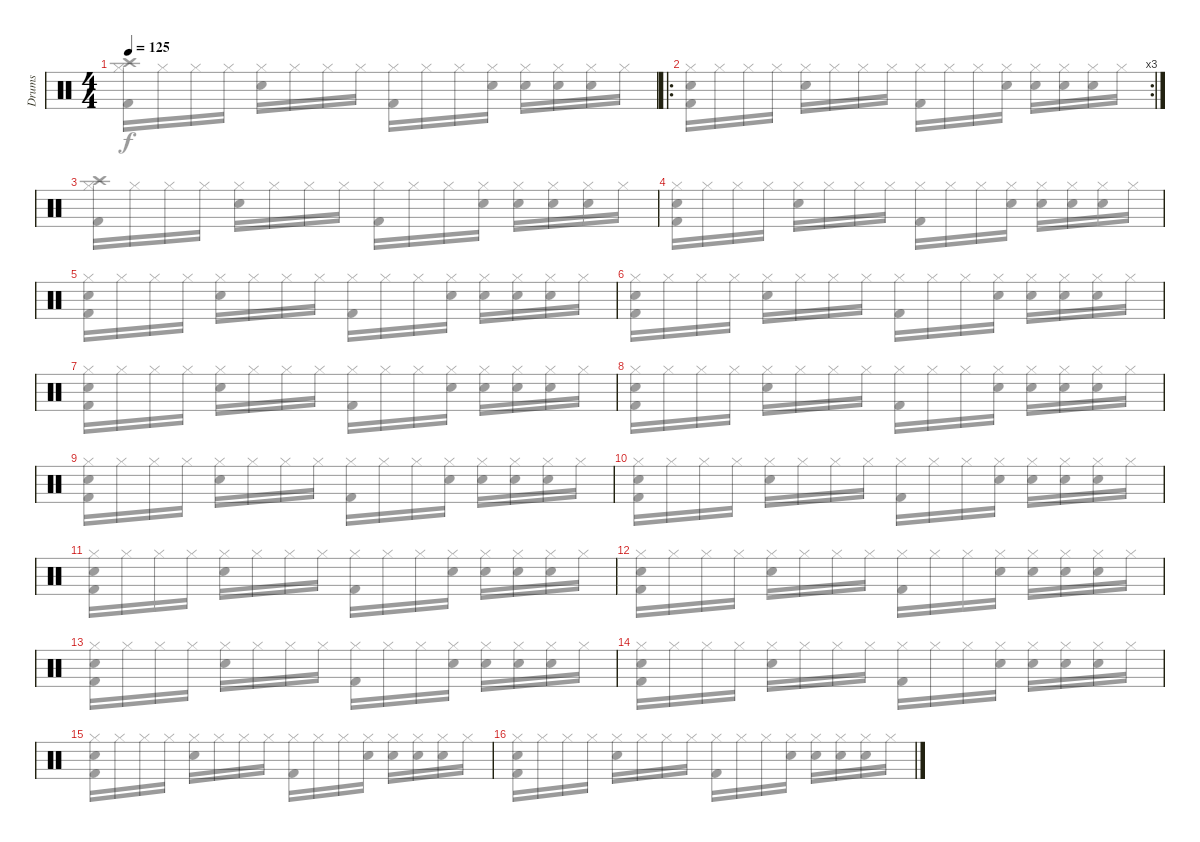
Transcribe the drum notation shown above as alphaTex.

\track ("Drums" "Drums") {instrument percussion}
\staff {score}
\articulation defaults
\voice
\ts (4 4)
\tempo 125
\clef neutral
\ks c
|
\ro
\rc 3
|
|
|
|
|
|
|
|
|
|
|
|
|
|
\voice
\clef neutral
\ks c
("Hi-Hat (closed)" "Kick (hit) 2" "Crash high (hit)").16{dy f} "Hi-Hat (closed)".16 "Hi-Hat (closed)".16 "Hi-Hat (closed)".16 ("Hi-Hat (closed)" "Electric Snare (hit)").16 "Hi-Hat (closed)".16 "Hi-Hat (closed)".16 "Hi-Hat (closed)".16 ("Hi-Hat (closed)" "Kick (hit) 2").16 "Hi-Hat (closed)".16 "Hi-Hat (closed)".16 ("Hi-Hat (closed)" "Electric Snare (hit)").16 ("Hi-Hat (closed)" "Snare (hit)").16 ("Hi-Hat (closed)" "Electric Snare (hit)").16 ("Hi-Hat (closed)" "Snare (hit)").16 "Hi-Hat (closed)".16 |
("Hi-Hat (closed)" "Kick (hit) 2" "Snare (hit)").16 "Hi-Hat (closed)".16 "Hi-Hat (closed)".16 "Hi-Hat (closed)".16 ("Hi-Hat (closed)" "Electric Snare (hit)").16 "Hi-Hat (closed)".16 "Hi-Hat (closed)".16 "Hi-Hat (closed)".16 ("Hi-Hat (closed)" "Kick (hit) 2").16 "Hi-Hat (closed)".16 "Hi-Hat (closed)".16 ("Hi-Hat (closed)" "Electric Snare (hit)").16 ("Hi-Hat (closed)" "Snare (hit)").16 ("Hi-Hat (closed)" "Electric Snare (hit)").16 ("Hi-Hat (closed)" "Snare (hit)").16 "Hi-Hat (closed)".16 |
("Hi-Hat (closed)" "Kick (hit) 2" "Crash high (hit)").16 "Hi-Hat (closed)".16 "Hi-Hat (closed)".16 "Hi-Hat (closed)".16 ("Hi-Hat (closed)" "Electric Snare (hit)").16 "Hi-Hat (closed)".16 "Hi-Hat (closed)".16 "Hi-Hat (closed)".16 ("Hi-Hat (closed)" "Kick (hit) 2").16 "Hi-Hat (closed)".16 "Hi-Hat (closed)".16 ("Hi-Hat (closed)" "Electric Snare (hit)").16 ("Hi-Hat (closed)" "Snare (hit)").16 ("Hi-Hat (closed)" "Electric Snare (hit)").16 ("Hi-Hat (closed)" "Snare (hit)").16 "Hi-Hat (closed)".16 |
("Hi-Hat (closed)" "Kick (hit) 2" "Snare (hit)").16 "Hi-Hat (closed)".16 "Hi-Hat (closed)".16 "Hi-Hat (closed)".16 ("Hi-Hat (closed)" "Electric Snare (hit)").16 "Hi-Hat (closed)".16 "Hi-Hat (closed)".16 "Hi-Hat (closed)".16 ("Hi-Hat (closed)" "Kick (hit) 2").16 "Hi-Hat (closed)".16 "Hi-Hat (closed)".16 ("Hi-Hat (closed)" "Electric Snare (hit)").16 ("Hi-Hat (closed)" "Snare (hit)").16 ("Hi-Hat (closed)" "Electric Snare (hit)").16 ("Hi-Hat (closed)" "Snare (hit)").16 "Hi-Hat (closed)".16 |
("Hi-Hat (closed)" "Kick (hit) 2" "Snare (hit)").16 "Hi-Hat (closed)".16 "Hi-Hat (closed)".16 "Hi-Hat (closed)".16 ("Hi-Hat (closed)" "Electric Snare (hit)").16 "Hi-Hat (closed)".16 "Hi-Hat (closed)".16 "Hi-Hat (closed)".16 ("Hi-Hat (closed)" "Kick (hit) 2").16 "Hi-Hat (closed)".16 "Hi-Hat (closed)".16 ("Hi-Hat (closed)" "Electric Snare (hit)").16 ("Hi-Hat (closed)" "Snare (hit)").16 ("Hi-Hat (closed)" "Electric Snare (hit)").16 ("Hi-Hat (closed)" "Snare (hit)").16 "Hi-Hat (closed)".16 |
("Hi-Hat (closed)" "Kick (hit) 2" "Snare (hit)").16 "Hi-Hat (closed)".16 "Hi-Hat (closed)".16 "Hi-Hat (closed)".16 ("Hi-Hat (closed)" "Electric Snare (hit)").16 "Hi-Hat (closed)".16 "Hi-Hat (closed)".16 "Hi-Hat (closed)".16 ("Hi-Hat (closed)" "Kick (hit) 2").16 "Hi-Hat (closed)".16 "Hi-Hat (closed)".16 ("Hi-Hat (closed)" "Electric Snare (hit)").16 ("Hi-Hat (closed)" "Snare (hit)").16 ("Hi-Hat (closed)" "Electric Snare (hit)").16 ("Hi-Hat (closed)" "Snare (hit)").16 "Hi-Hat (closed)".16 |
("Hi-Hat (closed)" "Kick (hit) 2" "Snare (hit)").16 "Hi-Hat (closed)".16 "Hi-Hat (closed)".16 "Hi-Hat (closed)".16 ("Hi-Hat (closed)" "Electric Snare (hit)").16 "Hi-Hat (closed)".16 "Hi-Hat (closed)".16 "Hi-Hat (closed)".16 ("Hi-Hat (closed)" "Kick (hit) 2").16 "Hi-Hat (closed)".16 "Hi-Hat (closed)".16 ("Hi-Hat (closed)" "Electric Snare (hit)").16 ("Hi-Hat (closed)" "Snare (hit)").16 ("Hi-Hat (closed)" "Electric Snare (hit)").16 ("Hi-Hat (closed)" "Snare (hit)").16 "Hi-Hat (closed)".16 |
("Hi-Hat (closed)" "Kick (hit) 2" "Snare (hit)").16 "Hi-Hat (closed)".16 "Hi-Hat (closed)".16 "Hi-Hat (closed)".16 ("Hi-Hat (closed)" "Electric Snare (hit)").16 "Hi-Hat (closed)".16 "Hi-Hat (closed)".16 "Hi-Hat (closed)".16 ("Hi-Hat (closed)" "Kick (hit) 2").16 "Hi-Hat (closed)".16 "Hi-Hat (closed)".16 ("Hi-Hat (closed)" "Electric Snare (hit)").16 ("Hi-Hat (closed)" "Snare (hit)").16 ("Hi-Hat (closed)" "Electric Snare (hit)").16 ("Hi-Hat (closed)" "Snare (hit)").16 "Hi-Hat (closed)".16 |
("Hi-Hat (closed)" "Kick (hit) 2" "Snare (hit)").16 "Hi-Hat (closed)".16 "Hi-Hat (closed)".16 "Hi-Hat (closed)".16 ("Hi-Hat (closed)" "Electric Snare (hit)").16 "Hi-Hat (closed)".16 "Hi-Hat (closed)".16 "Hi-Hat (closed)".16 ("Hi-Hat (closed)" "Kick (hit) 2").16 "Hi-Hat (closed)".16 "Hi-Hat (closed)".16 ("Hi-Hat (closed)" "Electric Snare (hit)").16 ("Hi-Hat (closed)" "Snare (hit)").16 ("Hi-Hat (closed)" "Electric Snare (hit)").16 ("Hi-Hat (closed)" "Snare (hit)").16 "Hi-Hat (closed)".16 |
("Hi-Hat (closed)" "Kick (hit) 2" "Snare (hit)").16 "Hi-Hat (closed)".16 "Hi-Hat (closed)".16 "Hi-Hat (closed)".16 ("Hi-Hat (closed)" "Electric Snare (hit)").16 "Hi-Hat (closed)".16 "Hi-Hat (closed)".16 "Hi-Hat (closed)".16 ("Hi-Hat (closed)" "Kick (hit) 2").16 "Hi-Hat (closed)".16 "Hi-Hat (closed)".16 ("Hi-Hat (closed)" "Electric Snare (hit)").16 ("Hi-Hat (closed)" "Snare (hit)").16 ("Hi-Hat (closed)" "Electric Snare (hit)").16 ("Hi-Hat (closed)" "Snare (hit)").16 "Hi-Hat (closed)".16 |
("Hi-Hat (closed)" "Kick (hit) 2" "Snare (hit)").16 "Hi-Hat (closed)".16 "Hi-Hat (closed)".16 "Hi-Hat (closed)".16 ("Hi-Hat (closed)" "Electric Snare (hit)").16 "Hi-Hat (closed)".16 "Hi-Hat (closed)".16 "Hi-Hat (closed)".16 ("Hi-Hat (closed)" "Kick (hit) 2").16 "Hi-Hat (closed)".16 "Hi-Hat (closed)".16 ("Hi-Hat (closed)" "Electric Snare (hit)").16 ("Hi-Hat (closed)" "Snare (hit)").16 ("Hi-Hat (closed)" "Electric Snare (hit)").16 ("Hi-Hat (closed)" "Snare (hit)").16 "Hi-Hat (closed)".16 |
("Hi-Hat (closed)" "Kick (hit) 2" "Snare (hit)").16 "Hi-Hat (closed)".16 "Hi-Hat (closed)".16 "Hi-Hat (closed)".16 ("Hi-Hat (closed)" "Electric Snare (hit)").16 "Hi-Hat (closed)".16 "Hi-Hat (closed)".16 "Hi-Hat (closed)".16 ("Hi-Hat (closed)" "Kick (hit) 2").16 "Hi-Hat (closed)".16 "Hi-Hat (closed)".16 ("Hi-Hat (closed)" "Electric Snare (hit)").16 ("Hi-Hat (closed)" "Snare (hit)").16 ("Hi-Hat (closed)" "Electric Snare (hit)").16 ("Hi-Hat (closed)" "Snare (hit)").16 "Hi-Hat (closed)".16 |
("Hi-Hat (closed)" "Kick (hit) 2" "Snare (hit)").16 "Hi-Hat (closed)".16 "Hi-Hat (closed)".16 "Hi-Hat (closed)".16 ("Hi-Hat (closed)" "Electric Snare (hit)").16 "Hi-Hat (closed)".16 "Hi-Hat (closed)".16 "Hi-Hat (closed)".16 ("Hi-Hat (closed)" "Kick (hit) 2").16 "Hi-Hat (closed)".16 "Hi-Hat (closed)".16 ("Hi-Hat (closed)" "Electric Snare (hit)").16 ("Hi-Hat (closed)" "Snare (hit)").16 ("Hi-Hat (closed)" "Electric Snare (hit)").16 ("Hi-Hat (closed)" "Snare (hit)").16 "Hi-Hat (closed)".16 |
("Hi-Hat (closed)" "Kick (hit) 2" "Snare (hit)").16 "Hi-Hat (closed)".16 "Hi-Hat (closed)".16 "Hi-Hat (closed)".16 ("Hi-Hat (closed)" "Electric Snare (hit)").16 "Hi-Hat (closed)".16 "Hi-Hat (closed)".16 "Hi-Hat (closed)".16 ("Hi-Hat (closed)" "Kick (hit) 2").16 "Hi-Hat (closed)".16 "Hi-Hat (closed)".16 ("Hi-Hat (closed)" "Electric Snare (hit)").16 ("Hi-Hat (closed)" "Snare (hit)").16 ("Hi-Hat (closed)" "Electric Snare (hit)").16 ("Hi-Hat (closed)" "Snare (hit)").16 "Hi-Hat (closed)".16 |
("Hi-Hat (closed)" "Kick (hit) 2" "Snare (hit)").16 "Hi-Hat (closed)".16 "Hi-Hat (closed)".16 "Hi-Hat (closed)".16 ("Hi-Hat (closed)" "Electric Snare (hit)").16 "Hi-Hat (closed)".16 "Hi-Hat (closed)".16 "Hi-Hat (closed)".16 ("Hi-Hat (closed)" "Kick (hit) 2").16 "Hi-Hat (closed)".16 "Hi-Hat (closed)".16 ("Hi-Hat (closed)" "Electric Snare (hit)").16 ("Hi-Hat (closed)" "Snare (hit)").16 ("Hi-Hat (closed)" "Electric Snare (hit)").16 ("Hi-Hat (closed)" "Snare (hit)").16 "Hi-Hat (closed)".16 |
("Hi-Hat (closed)" "Kick (hit) 2" "Snare (hit)").16 "Hi-Hat (closed)".16 "Hi-Hat (closed)".16 "Hi-Hat (closed)".16 ("Hi-Hat (closed)" "Electric Snare (hit)").16 "Hi-Hat (closed)".16 "Hi-Hat (closed)".16 "Hi-Hat (closed)".16 ("Hi-Hat (closed)" "Kick (hit) 2").16 "Hi-Hat (closed)".16 "Hi-Hat (closed)".16 ("Hi-Hat (closed)" "Electric Snare (hit)").16 ("Hi-Hat (closed)" "Snare (hit)").16 ("Hi-Hat (closed)" "Electric Snare (hit)").16 ("Hi-Hat (closed)" "Snare (hit)").16 "Hi-Hat (closed)".16
